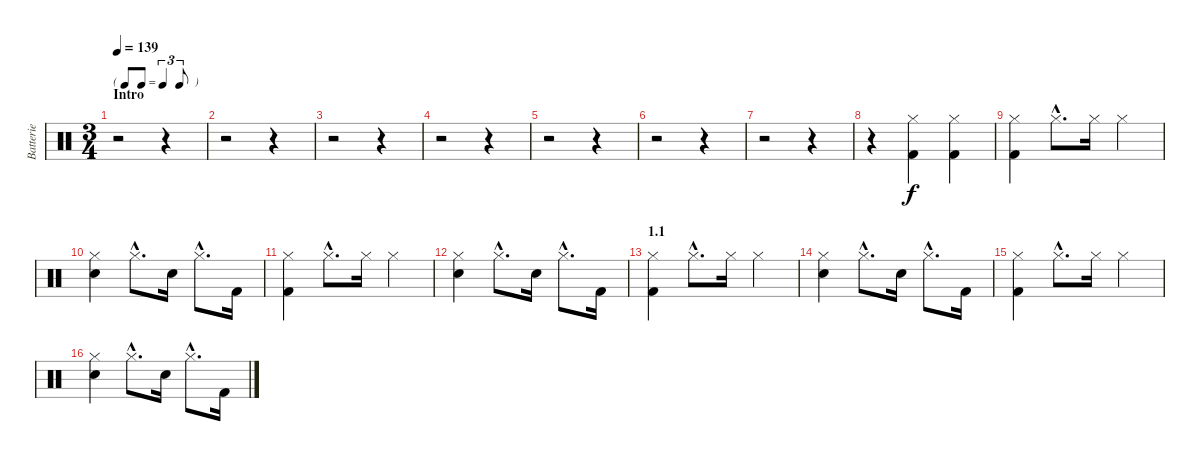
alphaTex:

\track ("Batterie" "Batterie") {instrument percussion}
\staff {score}
\articulation defaults
\ts (3 4)
\tf triplet8th
\section ("" "Intro")
\tempo 139
\clef neutral
\ks c
r.2{dy f} r.4 |
r.2 r.4 |
r.2 r.4 |
r.2 r.4 |
r.2 r.4 |
r.2 r.4 |
r.2 r.4 |
r.4 ("Hi-Hat (closed)" "Kick (hit) 2").4 ("Hi-Hat (closed)" "Kick (hit) 2").4 |
("Hi-Hat (closed)" "Kick (hit) 2").4 "Hi-Hat (closed)"{hac}.8{d} "Hi-Hat (closed)".16 "Hi-Hat (closed)".4 |
("Hi-Hat (closed)" "Snare (hit) 2").4 "Hi-Hat (closed)"{hac}.8{d} "Snare (hit) 2".16 "Hi-Hat (closed)"{hac}.8{d} "Kick (hit) 2".16 |
("Hi-Hat (closed)" "Kick (hit) 2").4 "Hi-Hat (closed)"{hac}.8{d} "Hi-Hat (closed)".16 "Hi-Hat (closed)".4 |
("Hi-Hat (closed)" "Snare (hit) 2").4 "Hi-Hat (closed)"{hac}.8{d} "Snare (hit) 2".16 "Hi-Hat (closed)"{hac}.8{d} "Kick (hit) 2".16 |
\section ("" "1.1")
("Hi-Hat (closed)" "Kick (hit) 2").4 "Hi-Hat (closed)"{hac}.8{d} "Hi-Hat (closed)".16 "Hi-Hat (closed)".4 |
("Hi-Hat (closed)" "Snare (hit) 2").4 "Hi-Hat (closed)"{hac}.8{d} "Snare (hit) 2".16 "Hi-Hat (closed)"{hac}.8{d} "Kick (hit) 2".16 |
("Hi-Hat (closed)" "Kick (hit) 2").4 "Hi-Hat (closed)"{hac}.8{d} "Hi-Hat (closed)".16 "Hi-Hat (closed)".4 |
("Hi-Hat (closed)" "Snare (hit) 2").4 "Hi-Hat (closed)"{hac}.8{d} "Snare (hit) 2".16 "Hi-Hat (closed)"{hac}.8{d} "Kick (hit) 2".16
